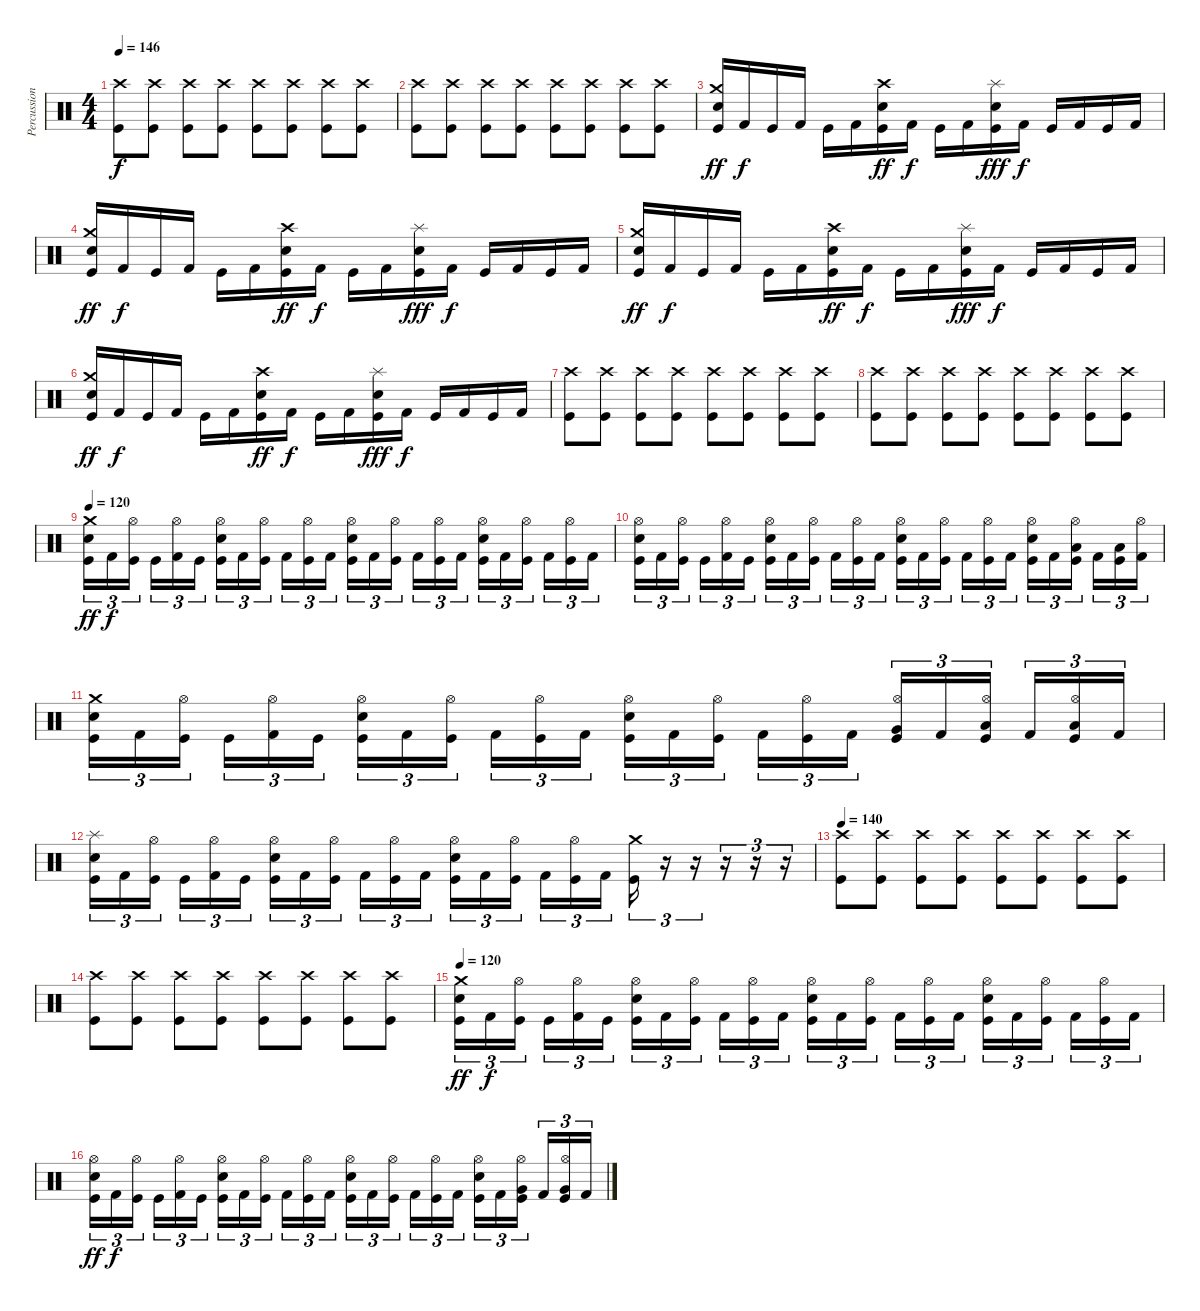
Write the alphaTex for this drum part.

\track ("Percussion" "Percussion") {instrument percussion}
\staff {score}
\articulation defaults
\ts (4 4)
\tempo 146
\clef neutral
\ks c
("Crash high (hit)" "Kick (hit)").8{dy f} ("Crash high (hit)" "Kick (hit)").8 ("Crash high (hit)" "Kick (hit)").8 ("Crash high (hit)" "Kick (hit)").8 ("Crash high (hit)" "Kick (hit)").8 ("Crash high (hit)" "Kick (hit)").8 ("Crash high (hit)" "Kick (hit)").8 ("Crash high (hit)" "Kick (hit)").8 |
("Crash high (hit)" "Kick (hit)").8 ("Crash high (hit)" "Kick (hit)").8 ("Crash high (hit)" "Kick (hit)").8 ("Crash high (hit)" "Kick (hit)").8 ("Crash high (hit)" "Kick (hit)").8 ("Crash high (hit)" "Kick (hit)").8 ("Crash high (hit)" "Kick (hit)").8 ("Crash high (hit)" "Kick (hit)").8 |
("Crash medium (hit)" "Electric Snare (hit)" "Kick (hit)").16{dy ff} "Kick (hit) 2".16{dy f} "Kick (hit)".16 "Kick (hit) 2".16 "Kick (hit)".16 "Kick (hit) 2".16 ("Crash high (hit)" "Electric Snare (hit)" "Kick (hit)").16{dy ff} "Kick (hit) 2".16{dy f} "Kick (hit)".16 "Kick (hit) 2".16 ("Splash (hit)" "Electric Snare (hit)" "Kick (hit)").16{dy fff} "Kick (hit) 2".16{dy f} "Kick (hit)".16 "Kick (hit) 2".16 "Kick (hit)".16 "Kick (hit) 2".16 |
("Crash medium (hit)" "Electric Snare (hit)" "Kick (hit)").16{dy ff} "Kick (hit) 2".16{dy f} "Kick (hit)".16 "Kick (hit) 2".16 "Kick (hit)".16 "Kick (hit) 2".16 ("Crash high (hit)" "Electric Snare (hit)" "Kick (hit)").16{dy ff} "Kick (hit) 2".16{dy f} "Kick (hit)".16 "Kick (hit) 2".16 ("Splash (hit)" "Electric Snare (hit)" "Kick (hit)").16{dy fff} "Kick (hit) 2".16{dy f} "Kick (hit)".16 "Kick (hit) 2".16 "Kick (hit)".16 "Kick (hit) 2".16 |
("Crash medium (hit)" "Electric Snare (hit)" "Kick (hit)").16{dy ff} "Kick (hit) 2".16{dy f} "Kick (hit)".16 "Kick (hit) 2".16 "Kick (hit)".16 "Kick (hit) 2".16 ("Crash high (hit)" "Electric Snare (hit)" "Kick (hit)").16{dy ff} "Kick (hit) 2".16{dy f} "Kick (hit)".16 "Kick (hit) 2".16 ("Splash (hit)" "Electric Snare (hit)" "Kick (hit)").16{dy fff} "Kick (hit) 2".16{dy f} "Kick (hit)".16 "Kick (hit) 2".16 "Kick (hit)".16 "Kick (hit) 2".16 |
("Crash medium (hit)" "Electric Snare (hit)" "Kick (hit)").16{dy ff} "Kick (hit) 2".16{dy f} "Kick (hit)".16 "Kick (hit) 2".16 "Kick (hit)".16 "Kick (hit) 2".16 ("Crash high (hit)" "Electric Snare (hit)" "Kick (hit)").16{dy ff} "Kick (hit) 2".16{dy f} "Kick (hit)".16 "Kick (hit) 2".16 ("Splash (hit)" "Electric Snare (hit)" "Kick (hit)").16{dy fff} "Kick (hit) 2".16{dy f} "Kick (hit)".16 "Kick (hit) 2".16 "Kick (hit)".16 "Kick (hit) 2".16 |
("Crash high (hit)" "Kick (hit)").8 ("Crash high (hit)" "Kick (hit)").8 ("Crash high (hit)" "Kick (hit)").8 ("Crash high (hit)" "Kick (hit)").8 ("Crash high (hit)" "Kick (hit)").8 ("Crash high (hit)" "Kick (hit)").8 ("Crash high (hit)" "Kick (hit)").8 ("Crash high (hit)" "Kick (hit)").8 |
("Crash high (hit)" "Kick (hit)").8 ("Crash high (hit)" "Kick (hit)").8 ("Crash high (hit)" "Kick (hit)").8 ("Crash high (hit)" "Kick (hit)").8 ("Crash high (hit)" "Kick (hit)").8 ("Crash high (hit)" "Kick (hit)").8 ("Crash high (hit)" "Kick (hit)").8 ("Crash high (hit)" "Kick (hit)").8 |
\tempo 120
("Crash medium (hit)" "Electric Snare (hit)" "Kick (hit)").16{tu (3 2) dy ff} "Kick (hit) 2".16{tu (3 2) dy f} ("Hi-Hat (open)" "Kick (hit)").16{tu (3 2)} "Kick (hit)".16{tu (3 2)} ("Hi-Hat (open)" "Kick (hit) 2").16{tu (3 2)} "Kick (hit)".16{tu (3 2)} ("Hi-Hat (open)" "Electric Snare (hit)" "Kick (hit)").16{tu (3 2)} "Kick (hit) 2".16{tu (3 2)} ("Hi-Hat (open)" "Kick (hit)").16{tu (3 2)} "Kick (hit) 2".16{tu (3 2)} ("Hi-Hat (open)" "Kick (hit)").16{tu (3 2)} "Kick (hit) 2".16{tu (3 2)} ("Hi-Hat (open)" "Electric Snare (hit)" "Kick (hit)").16{tu (3 2)} "Kick (hit) 2".16{tu (3 2)} ("Hi-Hat (open)" "Kick (hit)").16{tu (3 2)} "Kick (hit) 2".16{tu (3 2)} ("Hi-Hat (open)" "Kick (hit)").16{tu (3 2)} "Kick (hit) 2".16{tu (3 2)} ("Hi-Hat (open)" "Electric Snare (hit)" "Kick (hit)").16{tu (3 2)} "Kick (hit) 2".16{tu (3 2)} ("Hi-Hat (open)" "Kick (hit)").16{tu (3 2)} "Kick (hit) 2".16{tu (3 2)} ("Hi-Hat (open)" "Kick (hit)").16{tu (3 2)} "Kick (hit) 2".16{tu (3 2)} |
("Hi-Hat (open)" "Electric Snare (hit)" "Kick (hit)").16{tu (3 2)} "Kick (hit) 2".16{tu (3 2)} ("Hi-Hat (open)" "Kick (hit)").16{tu (3 2)} "Kick (hit)".16{tu (3 2)} ("Hi-Hat (open)" "Kick (hit) 2").16{tu (3 2)} "Kick (hit)".16{tu (3 2)} ("Hi-Hat (open)" "Electric Snare (hit)" "Kick (hit)").16{tu (3 2)} "Kick (hit) 2".16{tu (3 2)} ("Hi-Hat (open)" "Kick (hit)").16{tu (3 2)} "Kick (hit) 2".16{tu (3 2)} ("Hi-Hat (open)" "Kick (hit)").16{tu (3 2)} "Kick (hit) 2".16{tu (3 2)} ("Hi-Hat (open)" "Electric Snare (hit)" "Kick (hit)").16{tu (3 2)} "Kick (hit) 2".16{tu (3 2)} ("Hi-Hat (open)" "Kick (hit)").16{tu (3 2)} "Kick (hit) 2".16{tu (3 2)} ("Hi-Hat (open)" "Kick (hit)").16{tu (3 2)} "Kick (hit) 2".16{tu (3 2)} ("Hi-Hat (open)" "Electric Snare (hit)" "Kick (hit)").16{tu (3 2)} "Kick (hit) 2".16{tu (3 2)} ("Hi-Hat (open)" "Low Floor Tom (hit)" "Kick (hit)").16{tu (3 2)} "Kick (hit) 2".16{tu (3 2)} ("Low Floor Tom (hit)" "Kick (hit)").16{tu (3 2)} ("Hi-Hat (open)" "Kick (hit) 2").16{tu (3 2)} |
("Crash medium (hit)" "Electric Snare (hit)" "Kick (hit)").16{tu (3 2)} "Kick (hit) 2".16{tu (3 2)} ("Hi-Hat (open)" "Kick (hit)").16{tu (3 2)} "Kick (hit)".16{tu (3 2)} ("Hi-Hat (open)" "Kick (hit) 2").16{tu (3 2)} "Kick (hit)".16{tu (3 2)} ("Hi-Hat (open)" "Electric Snare (hit)" "Kick (hit)").16{tu (3 2)} "Kick (hit) 2".16{tu (3 2)} ("Hi-Hat (open)" "Kick (hit)").16{tu (3 2)} "Kick (hit) 2".16{tu (3 2)} ("Hi-Hat (open)" "Kick (hit)").16{tu (3 2)} "Kick (hit) 2".16{tu (3 2)} ("Hi-Hat (open)" "Electric Snare (hit)" "Kick (hit)").16{tu (3 2)} "Kick (hit) 2".16{tu (3 2)} ("Hi-Hat (open)" "Kick (hit)").16{tu (3 2)} "Kick (hit) 2".16{tu (3 2)} ("Hi-Hat (open)" "Kick (hit)").16{tu (3 2)} "Kick (hit) 2".16{tu (3 2)} ("Hi-Hat (open)" "Very Low Tom (hit)" "Kick (hit)").16{tu (3 2)} "Kick (hit) 2".16{tu (3 2)} ("Hi-Hat (open)" "Low Floor Tom (hit)" "Kick (hit)").16{tu (3 2)} "Kick (hit) 2".16{tu (3 2)} ("Hi-Hat (open)" "Low Floor Tom (hit)" "Kick (hit)").16{tu (3 2)} "Kick (hit) 2".16{tu (3 2)} |
("Splash (hit)" "Electric Snare (hit)" "Kick (hit)").16{tu (3 2)} "Kick (hit) 2".16{tu (3 2)} ("Hi-Hat (open)" "Kick (hit)").16{tu (3 2)} "Kick (hit)".16{tu (3 2)} ("Hi-Hat (open)" "Kick (hit) 2").16{tu (3 2)} "Kick (hit)".16{tu (3 2)} ("Hi-Hat (open)" "Electric Snare (hit)" "Kick (hit)").16{tu (3 2)} "Kick (hit) 2".16{tu (3 2)} ("Hi-Hat (open)" "Kick (hit)").16{tu (3 2)} "Kick (hit) 2".16{tu (3 2)} ("Hi-Hat (open)" "Kick (hit)").16{tu (3 2)} "Kick (hit) 2".16{tu (3 2)} ("Hi-Hat (open)" "Electric Snare (hit)" "Kick (hit)").16{tu (3 2)} "Kick (hit) 2".16{tu (3 2)} ("Hi-Hat (open)" "Kick (hit)").16{tu (3 2)} "Kick (hit) 2".16{tu (3 2)} ("Hi-Hat (open)" "Kick (hit)").16{tu (3 2)} "Kick (hit) 2".16{tu (3 2)} ("Crash medium (hit)" "Kick (hit)").16{tu (3 2)} r.16{tu (3 2)} r.16{tu (3 2)} r.16{tu (3 2)} r.16{tu (3 2)} r.16{tu (3 2)} |
\tempo 140
("Crash high (hit)" "Kick (hit)").8 ("Crash high (hit)" "Kick (hit)").8 ("Crash high (hit)" "Kick (hit)").8 ("Crash high (hit)" "Kick (hit)").8 ("Crash high (hit)" "Kick (hit)").8 ("Crash high (hit)" "Kick (hit)").8 ("Crash high (hit)" "Kick (hit)").8 ("Crash high (hit)" "Kick (hit)").8 |
("Crash high (hit)" "Kick (hit)").8 ("Crash high (hit)" "Kick (hit)").8 ("Crash high (hit)" "Kick (hit)").8 ("Crash high (hit)" "Kick (hit)").8 ("Crash high (hit)" "Kick (hit)").8 ("Crash high (hit)" "Kick (hit)").8 ("Crash high (hit)" "Kick (hit)").8 ("Crash high (hit)" "Kick (hit)").8 |
\tempo 120
("Crash medium (hit)" "Electric Snare (hit)" "Kick (hit)").16{tu (3 2) dy ff} "Kick (hit) 2".16{tu (3 2) dy f} ("Hi-Hat (open)" "Kick (hit)").16{tu (3 2)} "Kick (hit)".16{tu (3 2)} ("Hi-Hat (open)" "Kick (hit) 2").16{tu (3 2)} "Kick (hit)".16{tu (3 2)} ("Hi-Hat (open)" "Electric Snare (hit)" "Kick (hit)").16{tu (3 2)} "Kick (hit) 2".16{tu (3 2)} ("Hi-Hat (open)" "Kick (hit)").16{tu (3 2)} "Kick (hit) 2".16{tu (3 2)} ("Hi-Hat (open)" "Kick (hit)").16{tu (3 2)} "Kick (hit) 2".16{tu (3 2)} ("Hi-Hat (open)" "Electric Snare (hit)" "Kick (hit)").16{tu (3 2)} "Kick (hit) 2".16{tu (3 2)} ("Hi-Hat (open)" "Kick (hit)").16{tu (3 2)} "Kick (hit) 2".16{tu (3 2)} ("Hi-Hat (open)" "Kick (hit)").16{tu (3 2)} "Kick (hit) 2".16{tu (3 2)} ("Hi-Hat (open)" "Electric Snare (hit)" "Kick (hit)").16{tu (3 2)} "Kick (hit) 2".16{tu (3 2)} ("Hi-Hat (open)" "Kick (hit)").16{tu (3 2)} "Kick (hit) 2".16{tu (3 2)} ("Hi-Hat (open)" "Kick (hit)").16{tu (3 2)} "Kick (hit) 2".16{tu (3 2)} |
("Hi-Hat (open)" "Electric Snare (hit)" "Kick (hit)").16{tu (3 2) dy ff} "Kick (hit) 2".16{tu (3 2) dy f} ("Hi-Hat (open)" "Kick (hit)").16{tu (3 2)} "Kick (hit)".16{tu (3 2)} ("Hi-Hat (open)" "Kick (hit) 2").16{tu (3 2)} "Kick (hit)".16{tu (3 2)} ("Hi-Hat (open)" "Electric Snare (hit)" "Kick (hit)").16{tu (3 2)} "Kick (hit) 2".16{tu (3 2)} ("Hi-Hat (open)" "Kick (hit)").16{tu (3 2)} "Kick (hit) 2".16{tu (3 2)} ("Hi-Hat (open)" "Kick (hit)").16{tu (3 2)} "Kick (hit) 2".16{tu (3 2)} ("Hi-Hat (open)" "Electric Snare (hit)" "Kick (hit)").16{tu (3 2)} "Kick (hit) 2".16{tu (3 2)} ("Hi-Hat (open)" "Kick (hit)").16{tu (3 2)} "Kick (hit) 2".16{tu (3 2)} ("Hi-Hat (open)" "Kick (hit)").16{tu (3 2)} "Kick (hit) 2".16{tu (3 2)} ("Hi-Hat (open)" "Electric Snare (hit)" "Kick (hit)").16{tu (3 2)} "Kick (hit) 2".16{tu (3 2)} ("Hi-Hat (open)" "Very Low Tom (hit)" "Kick (hit)").16{tu (3 2)} "Kick (hit) 2".16{tu (3 2)} ("Hi-Hat (open)" "Very Low Tom (hit)" "Kick (hit)").16{tu (3 2)} "Kick (hit) 2".16{tu (3 2)}
